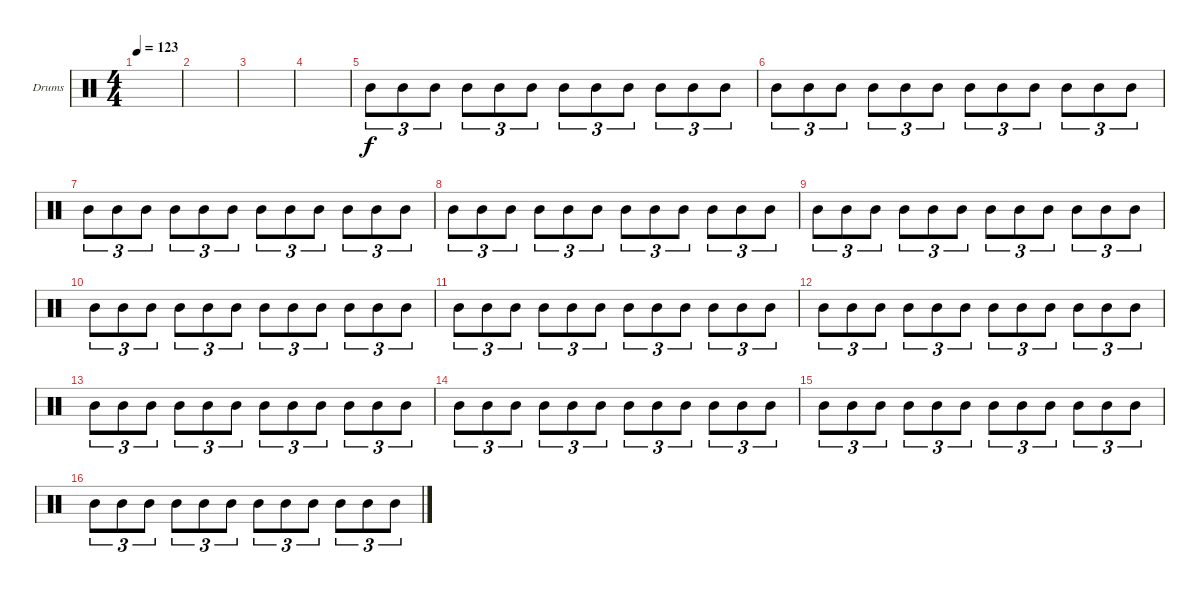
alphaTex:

\defaultSystemsLayout 4
\bracketExtendMode groupsimilarinstruments
\firstSystemTrackNameOrientation horizontal
\otherSystemsTrackNameOrientation horizontal
\track ("Drumkit" "Drums") {instrument percussion}
\staff {score}
\articulation defaults
\ts (4 4)
\tempo 123
\clef neutral
\scale
0.472222
\ks c
|
\scale
0.263889 |
\scale
0.263889 |
\scale
0.333333 |
\scale
0.333333 "Mid Tom (hit)".8{tu (3 2)} "Mid Tom (hit)".8{tu (3 2)} "Mid Tom (hit)".8{tu (3 2)} "Mid Tom (hit)".8{tu (3 2)} "Mid Tom (hit)".8{tu (3 2)} "Mid Tom (hit)".8{tu (3 2)} "Mid Tom (hit)".8{tu (3 2)} "Mid Tom (hit)".8{tu (3 2)} "Mid Tom (hit)".8{tu (3 2)} "Mid Tom (hit)".8{tu (3 2)} "Mid Tom (hit)".8{tu (3 2)} "Mid Tom (hit)".8{tu (3 2)} |
\scale
0.333333 "Mid Tom (hit)".8{tu (3 2)} "Mid Tom (hit)".8{tu (3 2)} "Mid Tom (hit)".8{tu (3 2)} "Mid Tom (hit)".8{tu (3 2)} "Mid Tom (hit)".8{tu (3 2)} "Mid Tom (hit)".8{tu (3 2)} "Mid Tom (hit)".8{tu (3 2)} "Mid Tom (hit)".8{tu (3 2)} "Mid Tom (hit)".8{tu (3 2)} "Mid Tom (hit)".8{tu (3 2)} "Mid Tom (hit)".8{tu (3 2)} "Mid Tom (hit)".8{tu (3 2)} |
\scale
0.333333 "Mid Tom (hit)".8{tu (3 2)} "Mid Tom (hit)".8{tu (3 2)} "Mid Tom (hit)".8{tu (3 2)} "Mid Tom (hit)".8{tu (3 2)} "Mid Tom (hit)".8{tu (3 2)} "Mid Tom (hit)".8{tu (3 2)} "Mid Tom (hit)".8{tu (3 2)} "Mid Tom (hit)".8{tu (3 2)} "Mid Tom (hit)".8{tu (3 2)} "Mid Tom (hit)".8{tu (3 2)} "Mid Tom (hit)".8{tu (3 2)} "Mid Tom (hit)".8{tu (3 2)} |
\scale
0.333333 "Mid Tom (hit)".8{tu (3 2)} "Mid Tom (hit)".8{tu (3 2)} "Mid Tom (hit)".8{tu (3 2)} "Mid Tom (hit)".8{tu (3 2)} "Mid Tom (hit)".8{tu (3 2)} "Mid Tom (hit)".8{tu (3 2)} "Mid Tom (hit)".8{tu (3 2)} "Mid Tom (hit)".8{tu (3 2)} "Mid Tom (hit)".8{tu (3 2)} "Mid Tom (hit)".8{tu (3 2)} "Mid Tom (hit)".8{tu (3 2)} "Mid Tom (hit)".8{tu (3 2)} |
\scale
0.333333 "Mid Tom (hit)".8{tu (3 2)} "Mid Tom (hit)".8{tu (3 2)} "Mid Tom (hit)".8{tu (3 2)} "Mid Tom (hit)".8{tu (3 2)} "Mid Tom (hit)".8{tu (3 2)} "Mid Tom (hit)".8{tu (3 2)} "Mid Tom (hit)".8{tu (3 2)} "Mid Tom (hit)".8{tu (3 2)} "Mid Tom (hit)".8{tu (3 2)} "Mid Tom (hit)".8{tu (3 2)} "Mid Tom (hit)".8{tu (3 2)} "Mid Tom (hit)".8{tu (3 2)} |
\scale
0.333333 "Mid Tom (hit)".8{tu (3 2)} "Mid Tom (hit)".8{tu (3 2)} "Mid Tom (hit)".8{tu (3 2)} "Mid Tom (hit)".8{tu (3 2)} "Mid Tom (hit)".8{tu (3 2)} "Mid Tom (hit)".8{tu (3 2)} "Mid Tom (hit)".8{tu (3 2)} "Mid Tom (hit)".8{tu (3 2)} "Mid Tom (hit)".8{tu (3 2)} "Mid Tom (hit)".8{tu (3 2)} "Mid Tom (hit)".8{tu (3 2)} "Mid Tom (hit)".8{tu (3 2)} |
\scale
0.333333 "Mid Tom (hit)".8{tu (3 2)} "Mid Tom (hit)".8{tu (3 2)} "Mid Tom (hit)".8{tu (3 2)} "Mid Tom (hit)".8{tu (3 2)} "Mid Tom (hit)".8{tu (3 2)} "Mid Tom (hit)".8{tu (3 2)} "Mid Tom (hit)".8{tu (3 2)} "Mid Tom (hit)".8{tu (3 2)} "Mid Tom (hit)".8{tu (3 2)} "Mid Tom (hit)".8{tu (3 2)} "Mid Tom (hit)".8{tu (3 2)} "Mid Tom (hit)".8{tu (3 2)} |
\scale
0.333333 "Mid Tom (hit)".8{tu (3 2)} "Mid Tom (hit)".8{tu (3 2)} "Mid Tom (hit)".8{tu (3 2)} "Mid Tom (hit)".8{tu (3 2)} "Mid Tom (hit)".8{tu (3 2)} "Mid Tom (hit)".8{tu (3 2)} "Mid Tom (hit)".8{tu (3 2)} "Mid Tom (hit)".8{tu (3 2)} "Mid Tom (hit)".8{tu (3 2)} "Mid Tom (hit)".8{tu (3 2)} "Mid Tom (hit)".8{tu (3 2)} "Mid Tom (hit)".8{tu (3 2)} |
\scale
0.333333 "Mid Tom (hit)".8{tu (3 2)} "Mid Tom (hit)".8{tu (3 2)} "Mid Tom (hit)".8{tu (3 2)} "Mid Tom (hit)".8{tu (3 2)} "Mid Tom (hit)".8{tu (3 2)} "Mid Tom (hit)".8{tu (3 2)} "Mid Tom (hit)".8{tu (3 2)} "Mid Tom (hit)".8{tu (3 2)} "Mid Tom (hit)".8{tu (3 2)} "Mid Tom (hit)".8{tu (3 2)} "Mid Tom (hit)".8{tu (3 2)} "Mid Tom (hit)".8{tu (3 2)} |
\scale
0.333333 "Mid Tom (hit)".8{tu (3 2)} "Mid Tom (hit)".8{tu (3 2)} "Mid Tom (hit)".8{tu (3 2)} "Mid Tom (hit)".8{tu (3 2)} "Mid Tom (hit)".8{tu (3 2)} "Mid Tom (hit)".8{tu (3 2)} "Mid Tom (hit)".8{tu (3 2)} "Mid Tom (hit)".8{tu (3 2)} "Mid Tom (hit)".8{tu (3 2)} "Mid Tom (hit)".8{tu (3 2)} "Mid Tom (hit)".8{tu (3 2)} "Mid Tom (hit)".8{tu (3 2)} |
\scale
0.333333 "Mid Tom (hit)".8{tu (3 2)} "Mid Tom (hit)".8{tu (3 2)} "Mid Tom (hit)".8{tu (3 2)} "Mid Tom (hit)".8{tu (3 2)} "Mid Tom (hit)".8{tu (3 2)} "Mid Tom (hit)".8{tu (3 2)} "Mid Tom (hit)".8{tu (3 2)} "Mid Tom (hit)".8{tu (3 2)} "Mid Tom (hit)".8{tu (3 2)} "Mid Tom (hit)".8{tu (3 2)} "Mid Tom (hit)".8{tu (3 2)} "Mid Tom (hit)".8{tu (3 2)} |
\scale
0.333333 "Mid Tom (hit)".8{tu (3 2)} "Mid Tom (hit)".8{tu (3 2)} "Mid Tom (hit)".8{tu (3 2)} "Mid Tom (hit)".8{tu (3 2)} "Mid Tom (hit)".8{tu (3 2)} "Mid Tom (hit)".8{tu (3 2)} "Mid Tom (hit)".8{tu (3 2)} "Mid Tom (hit)".8{tu (3 2)} "Mid Tom (hit)".8{tu (3 2)} "Mid Tom (hit)".8{tu (3 2)} "Mid Tom (hit)".8{tu (3 2)} "Mid Tom (hit)".8{tu (3 2)}
